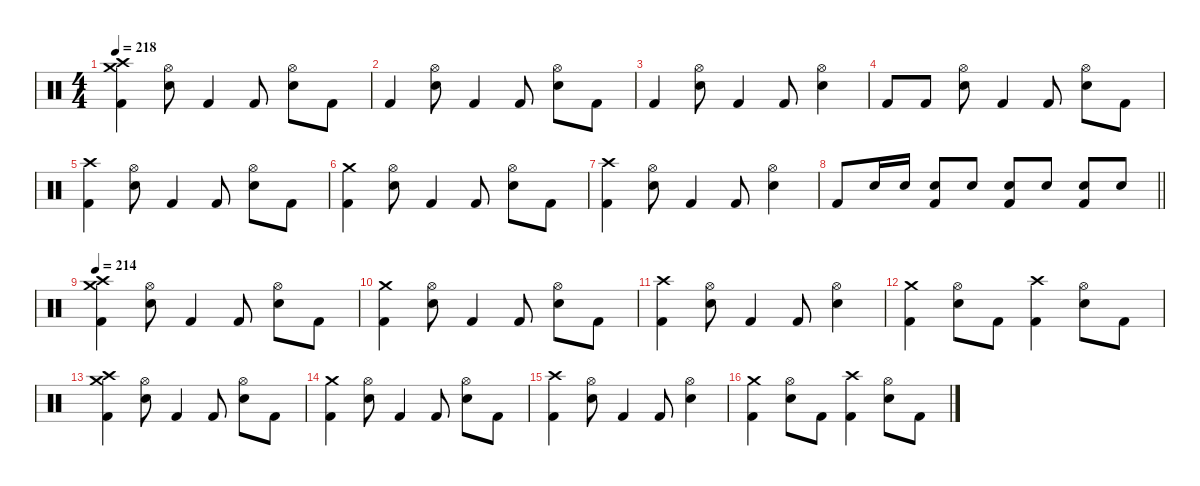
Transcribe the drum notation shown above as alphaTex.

\defaultSystemsLayout 4
\hideDynamics
\bracketExtendMode nobrackets
\singleTrackTrackNamePolicy hidden
\multiTrackTrackNamePolicy hidden
\firstSystemTrackNameMode fullname
\otherSystemsTrackNameOrientation horizontal
\track ("Drums" "drm.") {defaultSystemsLayout 4 instrument percussion}
\staff {score}
\articulation defaults
\ts (4 4)
\tempo 218
\clef neutral
\ks c
("Crash high (hit)" "Crash medium (hit)" "Kick (hit) 2").4{dy f beam Down} ("Hi-Hat (open)" "Snare (hit) 2").8{beam Down} "Kick (hit) 2".4{beam Up} "Kick (hit) 2".8{beam Up} ("Hi-Hat (open)" "Snare (hit) 2").8{beam Down} "Kick (hit) 2".8{dy mp beam Down} |
"Kick (hit) 2".4{dy f beam Up} ("Hi-Hat (open)" "Snare (hit) 2").8{beam Down} "Kick (hit) 2".4{beam Up} "Kick (hit) 2".8{beam Up} ("Hi-Hat (open)" "Snare (hit) 2").8{beam Down} "Kick (hit) 2".8{dy mp beam Down} |
"Kick (hit) 2".4{dy f beam Up} ("Hi-Hat (open)" "Snare (hit) 2").8{beam Down} "Kick (hit) 2".4{beam Up} "Kick (hit) 2".8{beam Up} ("Hi-Hat (open)" "Snare (hit) 2").4{beam Down} |
"Kick (hit) 2".8{beam Up} "Kick (hit) 2".8{beam Up} ("Hi-Hat (open)" "Snare (hit) 2").8{beam Down} "Kick (hit) 2".4{beam Up} "Kick (hit) 2".8{beam Up} ("Hi-Hat (open)" "Snare (hit) 2").8{beam Down} "Kick (hit) 2".8{beam Down} |
("Crash high (hit)" "Kick (hit) 2").4{beam Down} ("Hi-Hat (open)" "Snare (hit) 2").8{beam Down} "Kick (hit) 2".4{beam Up} "Kick (hit) 2".8{beam Up} ("Hi-Hat (open)" "Snare (hit) 2").8{beam Down} "Kick (hit) 2".8{dy mp beam Down} |
("Crash medium (hit)" "Kick (hit) 2").4{dy f beam Down} ("Hi-Hat (open)" "Snare (hit) 2").8{beam Down} "Kick (hit) 2".4{beam Up} "Kick (hit) 2".8{beam Up} ("Hi-Hat (open)" "Snare (hit) 2").8{beam Down} "Kick (hit) 2".8{dy mp beam Down} |
("Crash high (hit)" "Kick (hit) 2").4{dy f beam Down} ("Hi-Hat (open)" "Snare (hit) 2").8{beam Down} "Kick (hit) 2".4{beam Up} "Kick (hit) 2".8{beam Up} ("Hi-Hat (open)" "Snare (hit) 2").4{beam Down} |
\barLineRight lightlight "Kick (hit) 2".8{beam Up} "Snare (hit) 2".16{beam Up} "Snare (hit) 2".16{beam Up}
("Kick (hit) 2" "Snare (hit) 2").8{beam Up} "Snare (hit) 2".8{beam Up} ("Kick (hit) 2" "Snare (hit) 2").8{beam Up} "Snare (hit) 2".8{beam Up} ("Kick (hit) 2" "Snare (hit) 2").8{beam Up} "Snare (hit) 2".8{beam Up} |
\tempo 214
("Crash high (hit)" "Crash medium (hit)" "Kick (hit) 2").4{beam Down} ("Hi-Hat (open)" "Snare (hit) 2").8{beam Down} "Kick (hit) 2".4{beam Up} "Kick (hit) 2".8{beam Up} ("Hi-Hat (open)" "Snare (hit) 2").8{beam Down} "Kick (hit) 2".8{dy mp beam Down} |
("Crash medium (hit)" "Kick (hit) 2").4{dy f beam Down} ("Hi-Hat (open)" "Snare (hit) 2").8{beam Down} "Kick (hit) 2".4{beam Up} "Kick (hit) 2".8{beam Up} ("Hi-Hat (open)" "Snare (hit) 2").8{beam Down} "Kick (hit) 2".8{dy mp beam Down} |
("Crash high (hit)" "Kick (hit) 2").4{dy f beam Down} ("Hi-Hat (open)" "Snare (hit) 2").8{beam Down} "Kick (hit) 2".4{beam Up} "Kick (hit) 2".8{beam Up} ("Hi-Hat (open)" "Snare (hit) 2").4{beam Down} |
("Crash medium (hit)" "Kick (hit) 2").4{beam Down} ("Hi-Hat (open)" "Snare (hit) 2").8{beam Down} "Kick (hit) 2".8{beam Down} ("Crash high (hit)" "Kick (hit) 2").4{beam Down} ("Hi-Hat (open)" "Snare (hit) 2").8{beam Down} "Kick (hit) 2".8{beam Down} |
("Crash high (hit)" "Crash medium (hit)" "Kick (hit) 2").4{beam Down} ("Hi-Hat (open)" "Snare (hit) 2").8{beam Down} "Kick (hit) 2".4{beam Up} "Kick (hit) 2".8{beam Up} ("Hi-Hat (open)" "Snare (hit) 2").8{beam Down} "Kick (hit) 2".8{dy mp beam Down} |
("Crash medium (hit)" "Kick (hit) 2").4{dy f beam Down} ("Hi-Hat (open)" "Snare (hit) 2").8{beam Down} "Kick (hit) 2".4{beam Up} "Kick (hit) 2".8{beam Up} ("Hi-Hat (open)" "Snare (hit) 2").8{beam Down} "Kick (hit) 2".8{dy mp beam Down} |
("Crash high (hit)" "Kick (hit) 2").4{dy f beam Down} ("Hi-Hat (open)" "Snare (hit) 2").8{beam Down} "Kick (hit) 2".4{beam Up} "Kick (hit) 2".8{beam Up} ("Hi-Hat (open)" "Snare (hit) 2").4{beam Down} |
("Crash medium (hit)" "Kick (hit) 2").4{beam Down} ("Hi-Hat (open)" "Snare (hit) 2").8{beam Down} "Kick (hit) 2".8{beam Down} ("Crash high (hit)" "Kick (hit) 2").4{beam Down} ("Hi-Hat (open)" "Snare (hit) 2").8{beam Down} "Kick (hit) 2".8{beam Down}
